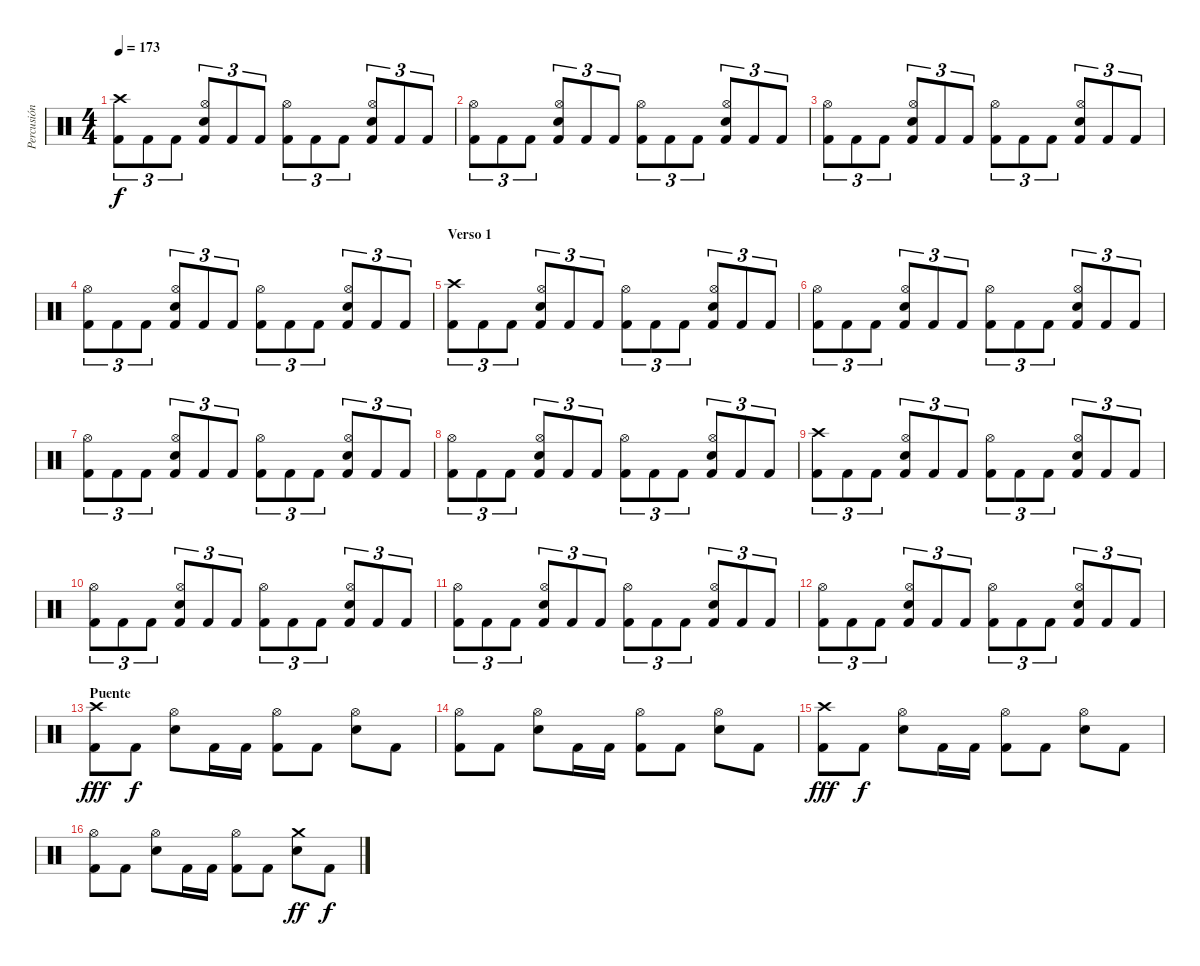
\track ("Percusión" "Percusión") {instrument percussion}
\staff {score}
\articulation defaults
\ts (4 4)
\tempo 173
\clef neutral
\ks c
("Crash high (hit)" "Kick (hit) 2").8{tu (3 2) dy f} "Kick (hit) 2".8{tu (3 2)} "Kick (hit) 2".8{tu (3 2)} ("Hi-Hat (open)" "Snare (hit) 2" "Kick (hit) 2").8{tu (3 2)} "Kick (hit) 2".8{tu (3 2)} "Kick (hit) 2".8{tu (3 2)} ("Hi-Hat (open)" "Kick (hit) 2").8{tu (3 2)} "Kick (hit) 2".8{tu (3 2)} "Kick (hit) 2".8{tu (3 2)} ("Hi-Hat (open)" "Snare (hit) 2" "Kick (hit) 2").8{tu (3 2)} "Kick (hit) 2".8{tu (3 2)} "Kick (hit) 2".8{tu (3 2)} |
("Hi-Hat (open)" "Kick (hit) 2").8{tu (3 2)} "Kick (hit) 2".8{tu (3 2)} "Kick (hit) 2".8{tu (3 2)} ("Hi-Hat (open)" "Snare (hit) 2" "Kick (hit) 2").8{tu (3 2)} "Kick (hit) 2".8{tu (3 2)} "Kick (hit) 2".8{tu (3 2)} ("Hi-Hat (open)" "Kick (hit) 2").8{tu (3 2)} "Kick (hit) 2".8{tu (3 2)} "Kick (hit) 2".8{tu (3 2)} ("Hi-Hat (open)" "Snare (hit) 2" "Kick (hit) 2").8{tu (3 2)} "Kick (hit) 2".8{tu (3 2)} "Kick (hit) 2".8{tu (3 2)} |
("Hi-Hat (open)" "Kick (hit) 2").8{tu (3 2)} "Kick (hit) 2".8{tu (3 2)} "Kick (hit) 2".8{tu (3 2)} ("Hi-Hat (open)" "Snare (hit) 2" "Kick (hit) 2").8{tu (3 2)} "Kick (hit) 2".8{tu (3 2)} "Kick (hit) 2".8{tu (3 2)} ("Hi-Hat (open)" "Kick (hit) 2").8{tu (3 2)} "Kick (hit) 2".8{tu (3 2)} "Kick (hit) 2".8{tu (3 2)} ("Hi-Hat (open)" "Snare (hit) 2" "Kick (hit) 2").8{tu (3 2)} "Kick (hit) 2".8{tu (3 2)} "Kick (hit) 2".8{tu (3 2)} |
("Hi-Hat (open)" "Kick (hit) 2").8{tu (3 2)} "Kick (hit) 2".8{tu (3 2)} "Kick (hit) 2".8{tu (3 2)} ("Hi-Hat (open)" "Snare (hit) 2" "Kick (hit) 2").8{tu (3 2)} "Kick (hit) 2".8{tu (3 2)} "Kick (hit) 2".8{tu (3 2)} ("Hi-Hat (open)" "Kick (hit) 2").8{tu (3 2)} "Kick (hit) 2".8{tu (3 2)} "Kick (hit) 2".8{tu (3 2)} ("Hi-Hat (open)" "Snare (hit) 2" "Kick (hit) 2").8{tu (3 2)} "Kick (hit) 2".8{tu (3 2)} "Kick (hit) 2".8{tu (3 2)} |
\section ("" "Verso 1")
("Crash high (hit)" "Kick (hit) 2").8{tu (3 2)} "Kick (hit) 2".8{tu (3 2)} "Kick (hit) 2".8{tu (3 2)} ("Hi-Hat (open)" "Snare (hit) 2" "Kick (hit) 2").8{tu (3 2)} "Kick (hit) 2".8{tu (3 2)} "Kick (hit) 2".8{tu (3 2)} ("Hi-Hat (open)" "Kick (hit) 2").8{tu (3 2)} "Kick (hit) 2".8{tu (3 2)} "Kick (hit) 2".8{tu (3 2)} ("Hi-Hat (open)" "Snare (hit) 2" "Kick (hit) 2").8{tu (3 2)} "Kick (hit) 2".8{tu (3 2)} "Kick (hit) 2".8{tu (3 2)} |
("Hi-Hat (open)" "Kick (hit) 2").8{tu (3 2)} "Kick (hit) 2".8{tu (3 2)} "Kick (hit) 2".8{tu (3 2)} ("Hi-Hat (open)" "Snare (hit) 2" "Kick (hit) 2").8{tu (3 2)} "Kick (hit) 2".8{tu (3 2)} "Kick (hit) 2".8{tu (3 2)} ("Hi-Hat (open)" "Kick (hit) 2").8{tu (3 2)} "Kick (hit) 2".8{tu (3 2)} "Kick (hit) 2".8{tu (3 2)} ("Hi-Hat (open)" "Snare (hit) 2" "Kick (hit) 2").8{tu (3 2)} "Kick (hit) 2".8{tu (3 2)} "Kick (hit) 2".8{tu (3 2)} |
("Hi-Hat (open)" "Kick (hit) 2").8{tu (3 2)} "Kick (hit) 2".8{tu (3 2)} "Kick (hit) 2".8{tu (3 2)} ("Hi-Hat (open)" "Snare (hit) 2" "Kick (hit) 2").8{tu (3 2)} "Kick (hit) 2".8{tu (3 2)} "Kick (hit) 2".8{tu (3 2)} ("Hi-Hat (open)" "Kick (hit) 2").8{tu (3 2)} "Kick (hit) 2".8{tu (3 2)} "Kick (hit) 2".8{tu (3 2)} ("Hi-Hat (open)" "Snare (hit) 2" "Kick (hit) 2").8{tu (3 2)} "Kick (hit) 2".8{tu (3 2)} "Kick (hit) 2".8{tu (3 2)} |
("Hi-Hat (open)" "Kick (hit) 2").8{tu (3 2)} "Kick (hit) 2".8{tu (3 2)} "Kick (hit) 2".8{tu (3 2)} ("Hi-Hat (open)" "Snare (hit) 2" "Kick (hit) 2").8{tu (3 2)} "Kick (hit) 2".8{tu (3 2)} "Kick (hit) 2".8{tu (3 2)} ("Hi-Hat (open)" "Kick (hit) 2").8{tu (3 2)} "Kick (hit) 2".8{tu (3 2)} "Kick (hit) 2".8{tu (3 2)} ("Hi-Hat (open)" "Snare (hit) 2" "Kick (hit) 2").8{tu (3 2)} "Kick (hit) 2".8{tu (3 2)} "Kick (hit) 2".8{tu (3 2)} |
("Crash high (hit)" "Kick (hit) 2").8{tu (3 2)} "Kick (hit) 2".8{tu (3 2)} "Kick (hit) 2".8{tu (3 2)} ("Hi-Hat (open)" "Snare (hit) 2" "Kick (hit) 2").8{tu (3 2)} "Kick (hit) 2".8{tu (3 2)} "Kick (hit) 2".8{tu (3 2)} ("Hi-Hat (open)" "Kick (hit) 2").8{tu (3 2)} "Kick (hit) 2".8{tu (3 2)} "Kick (hit) 2".8{tu (3 2)} ("Hi-Hat (open)" "Snare (hit) 2" "Kick (hit) 2").8{tu (3 2)} "Kick (hit) 2".8{tu (3 2)} "Kick (hit) 2".8{tu (3 2)} |
("Hi-Hat (open)" "Kick (hit) 2").8{tu (3 2)} "Kick (hit) 2".8{tu (3 2)} "Kick (hit) 2".8{tu (3 2)} ("Hi-Hat (open)" "Snare (hit) 2" "Kick (hit) 2").8{tu (3 2)} "Kick (hit) 2".8{tu (3 2)} "Kick (hit) 2".8{tu (3 2)} ("Hi-Hat (open)" "Kick (hit) 2").8{tu (3 2)} "Kick (hit) 2".8{tu (3 2)} "Kick (hit) 2".8{tu (3 2)} ("Hi-Hat (open)" "Snare (hit) 2" "Kick (hit) 2").8{tu (3 2)} "Kick (hit) 2".8{tu (3 2)} "Kick (hit) 2".8{tu (3 2)} |
("Hi-Hat (open)" "Kick (hit) 2").8{tu (3 2)} "Kick (hit) 2".8{tu (3 2)} "Kick (hit) 2".8{tu (3 2)} ("Hi-Hat (open)" "Snare (hit) 2" "Kick (hit) 2").8{tu (3 2)} "Kick (hit) 2".8{tu (3 2)} "Kick (hit) 2".8{tu (3 2)} ("Hi-Hat (open)" "Kick (hit) 2").8{tu (3 2)} "Kick (hit) 2".8{tu (3 2)} "Kick (hit) 2".8{tu (3 2)} ("Hi-Hat (open)" "Snare (hit) 2" "Kick (hit) 2").8{tu (3 2)} "Kick (hit) 2".8{tu (3 2)} "Kick (hit) 2".8{tu (3 2)} |
("Hi-Hat (open)" "Kick (hit) 2").8{tu (3 2)} "Kick (hit) 2".8{tu (3 2)} "Kick (hit) 2".8{tu (3 2)} ("Hi-Hat (open)" "Snare (hit) 2" "Kick (hit) 2").8{tu (3 2)} "Kick (hit) 2".8{tu (3 2)} "Kick (hit) 2".8{tu (3 2)} ("Hi-Hat (open)" "Kick (hit) 2").8{tu (3 2)} "Kick (hit) 2".8{tu (3 2)} "Kick (hit) 2".8{tu (3 2)} ("Hi-Hat (open)" "Snare (hit) 2" "Kick (hit) 2").8{tu (3 2)} "Kick (hit) 2".8{tu (3 2)} "Kick (hit) 2".8{tu (3 2)} |
\section ("" "Puente")
("Crash high (hit)" "Kick (hit) 2").8{dy fff} "Kick (hit) 2".8{dy f} ("Hi-Hat (open)" "Snare (hit) 2").8 "Kick (hit) 2".16 "Kick (hit) 2".16 ("Hi-Hat (open)" "Kick (hit) 2").8 "Kick (hit) 2".8 ("Hi-Hat (open)" "Snare (hit) 2").8 "Kick (hit) 2".8 |
("Hi-Hat (open)" "Kick (hit) 2").8 "Kick (hit) 2".8 ("Hi-Hat (open)" "Snare (hit) 2").8 "Kick (hit) 2".16 "Kick (hit) 2".16 ("Hi-Hat (open)" "Kick (hit) 2").8 "Kick (hit) 2".8 ("Hi-Hat (open)" "Snare (hit) 2").8 "Kick (hit) 2".8 |
("Crash high (hit)" "Kick (hit) 2").8{dy fff} "Kick (hit) 2".8{dy f} ("Hi-Hat (open)" "Snare (hit) 2").8 "Kick (hit) 2".16 "Kick (hit) 2".16 ("Hi-Hat (open)" "Kick (hit) 2").8 "Kick (hit) 2".8 ("Hi-Hat (open)" "Snare (hit) 2").8 "Kick (hit) 2".8 |
("Hi-Hat (open)" "Kick (hit) 2").8 "Kick (hit) 2".8 ("Hi-Hat (open)" "Snare (hit) 2").8 "Kick (hit) 2".16 "Kick (hit) 2".16 ("Hi-Hat (open)" "Kick (hit) 2").8 "Kick (hit) 2".8 ("Crash medium (hit)" "Snare (hit) 2").8{dy ff} "Kick (hit) 2".8{dy f}
